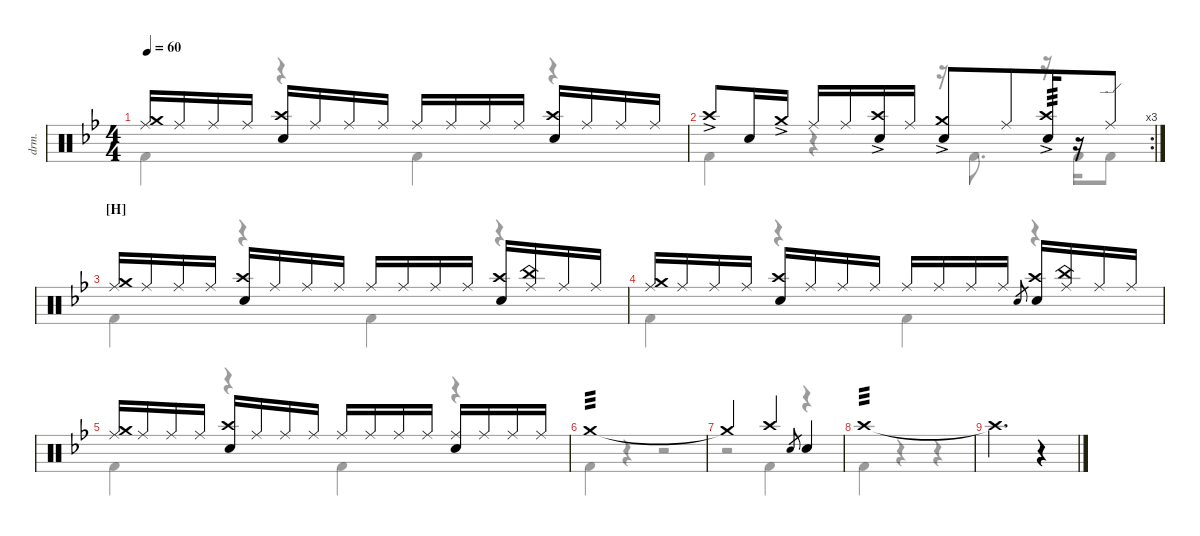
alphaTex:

\defaultSystemsLayout 4
\hideDynamics
\bracketExtendMode nobrackets
\otherSystemsTrackNameOrientation horizontal
\track ("Drumkit" "drm.") {instrument percussion}
\staff {score}
\articulation defaults
\voice
\ts (4 4)
\tempo 60
\clef neutral
\ks bb
("Crash medium (hit)"{acc forcenatural} "Ride (middle)"{acc forcenatural}).16{dy mf beam Up} "Ride (middle)"{acc forcenatural}.16{dy mp beam Up} "Ride (middle)"{acc forcenatural}.16{dy mf beam Up} "Ride (middle)"{acc forcenatural}.16{dy mp beam Up} ("Snare (hit) 2"{acc forcenatural} "Crash high (hit)"{acc forcenatural}).16{dy mf beam Up} "Ride (middle)"{acc forcenatural}.16{dy mp beam Up} "Ride (middle)"{acc forcenatural}.16{beam Up} "Ride (middle)"{acc forcenatural}.16{dy mf beam Up} "Ride (middle)"{acc forcenatural}.16{beam Up} "Ride (middle)"{acc forcenatural}.16{dy mp beam Up} "Ride (middle)"{acc forcenatural}.16{dy mf beam Up} "Ride (middle)"{acc forcenatural}.16{dy mp beam Up} ("Snare (hit) 2"{acc forcenatural} "Crash high (hit)"{acc forcenatural}).16{dy mf beam Up} "Ride (middle)"{acc forcenatural}.16{dy mp beam Up} "Ride (middle)"{acc forcenatural}.16{beam Up} "Ride (middle)"{acc forcenatural}.16{dy mf beam Up} |
\rc 3 "Crash high (hit)"{ac acc forcenatural}.8{dy mp beam Up} "Snare (hit) 2"{acc forcenatural}.16{beam Up} "Crash medium (hit)"{ac acc forcenatural}.16{beam Up} "Ride (middle)"{acc forcenatural}.16{beam Up} "Ride (middle)"{acc forcenatural}.16{beam Up}
("Snare (hit) 2"{acc forcenatural} "Crash high (hit)"{ac acc forcenatural}).16{beam Up} "Ride (middle)"{acc forcenatural}.16{beam Up} ("Crash medium (hit)"{ac acc forcenatural} "Snare (hit) 2"{acc forcenatural}).8{beam Up} "Ride (middle)"{acc forcenatural}.8{beam Up beam merge} ("Crash high (hit)"{ac acc forcenatural} "Snare (hit) 2"{acc forcenatural}).16{tp 3 beam Up} r.16{beam Up} "Ride (edge)"{acc forcenatural}.8{beam Up} |
\section ("H" "")
("Crash medium (hit)"{acc forcenatural} "Ride (middle)"{acc forcenatural}).16{dy mf beam Up} "Ride (middle)"{acc forcenatural}.16{dy mp beam Up} "Ride (middle)"{acc forcenatural}.16{dy mf beam Up} "Ride (middle)"{acc forcenatural}.16{dy mp beam Up} ("Snare (hit) 2"{acc forcenatural} "Crash high (hit)"{acc forcenatural}).16{dy mf beam Up} "Ride (middle)"{acc forcenatural}.16{dy mp beam Up} "Ride (middle)"{acc forcenatural}.16{beam Up} "Ride (middle)"{acc forcenatural}.16{dy mf beam Up} "Ride (middle)"{acc forcenatural}.16{beam Up} "Ride (middle)"{acc forcenatural}.16{dy mp beam Up} "Ride (middle)"{acc forcenatural}.16{dy mf beam Up} "Ride (middle)"{acc forcenatural}.16{dy mp beam Up} ("Snare (hit) 2"{acc forcenatural} "Crash high (hit)"{acc forcenatural}).16{dy mf beam Up} ("Ride (middle)"{acc forcenatural} "China (hit)"{acc forcenatural}).16{dy mp beam Up} "Ride (middle)"{acc forcenatural}.16{beam Up} "Ride (middle)"{acc forcenatural}.16{dy mf beam Up} |
("Crash medium (hit)"{acc forcenatural} "Ride (middle)"{acc forcenatural}).16{beam Up} "Ride (middle)"{acc forcenatural}.16{dy mp beam Up} "Ride (middle)"{acc forcenatural}.16{dy mf beam Up} "Ride (middle)"{acc forcenatural}.16{dy mp beam Up} ("Snare (hit) 2"{acc forcenatural} "Crash high (hit)"{acc forcenatural}).16{dy mf beam Up} "Ride (middle)"{acc forcenatural}.16{dy mp beam Up} "Ride (middle)"{acc forcenatural}.16{beam Up} "Ride (middle)"{acc forcenatural}.16{dy mf beam Up} "Ride (middle)"{acc forcenatural}.16{beam Up} "Ride (middle)"{acc forcenatural}.16{dy mp beam Up} "Ride (middle)"{acc forcenatural}.16{dy mf beam Up} "Ride (middle)"{acc forcenatural}.16{dy mp beam Up} "Snare (hit) 2"{acc forcenatural}.8{gr dy mf beam Up} ("Snare (hit) 2"{acc forcenatural} "Crash high (hit)"{acc forcenatural}).16{beam Up} ("Ride (middle)"{acc forcenatural} "China (hit)"{acc forcenatural}).16{dy mp beam Up} "Ride (middle)"{acc forcenatural}.16{beam Up} "Ride (middle)"{acc forcenatural}.16{dy mf beam Up} |
("Crash medium (hit)"{acc forcenatural} "Ride (middle)"{acc forcenatural}).16{beam Up} "Ride (middle)"{acc forcenatural}.16{dy mp beam Up} "Ride (middle)"{acc forcenatural}.16{dy mf beam Up} "Ride (middle)"{acc forcenatural}.16{dy mp beam Up} ("Snare (hit) 2"{acc forcenatural} "Crash high (hit)"{acc forcenatural}).16{dy mf beam Up} "Ride (middle)"{acc forcenatural}.16{dy mp beam Up} "Ride (middle)"{acc forcenatural}.16{beam Up} "Ride (middle)"{acc forcenatural}.16{dy mf beam Up} "Ride (middle)"{acc forcenatural}.16{beam Up} "Ride (middle)"{acc forcenatural}.16{dy mp beam Up} "Ride (middle)"{acc forcenatural}.16{dy mf beam Up} "Ride (middle)"{acc forcenatural}.16{dy mp beam Up} ("Snare (hit) 2"{acc forcenatural} "Ride (middle)"{acc forcenatural}).16{dy mf beam Up} "Ride (middle)"{acc forcenatural}.16{dy mp beam Up} "Ride (middle)"{acc forcenatural}.16{beam Up} "Ride (middle)"{acc forcenatural}.16{dy mf beam Up} |
"Crash medium (hit)"{acc forcenatural}.1{tp 3 beam Up} |
"Crash medium (hit)"{t acc forcenatural}.2{beam Up} "Crash high (hit)"{acc forcenatural}.4{beam Up} "Snare (hit) 2"{acc forcenatural}.8{gr beam Up} "Snare (hit) 2"{acc forcenatural}.4{beam Up} |
"Crash high (hit)"{acc forcenatural}.1{tp 3 beam Up} |
"Crash high (hit)"{t acc forcenatural}.2{d beam Down} r.4{beam Down}
\voice
\clef neutral
\ottava regular
\simile none
\ks bb "Kick (hit) 2"{acc forcenatural}.4{dy mf beam Down}
r.4{beam Down} "Kick (hit) 2"{acc forcenatural}.4{beam Down} r.4{beam Down} |
"Kick (hit) 2"{acc forcenatural}.4{beam Down} r.4{beam Down} r.16{beam Down} "Kick (hit) 2"{acc forcenatural}.8{d beam Down} r.16{beam Down} "Kick (hit) 2"{acc forcenatural}.16{beam Down} "Kick (hit) 2"{acc forcenatural}.8{beam Down} |
"Kick (hit) 2"{acc forcenatural}.4{beam Down} r.4{beam Down} "Kick (hit) 2"{acc forcenatural}.4{beam Down} r.4{beam Down} |
"Kick (hit) 2"{acc forcenatural}.4{beam Down} r.4{beam Down} "Kick (hit) 2"{acc forcenatural}.4{beam Down} r.4{beam Down} |
"Kick (hit) 2"{acc forcenatural}.4{beam Down} r.4{beam Down} "Kick (hit) 2"{acc forcenatural}.4{beam Down} r.4{beam Down} |
"Kick (hit) 2"{acc forcenatural}.4{beam Down} r.4{beam Down} r.2{beam Down} |
r.2{beam Down} "Kick (hit) 2"{acc forcenatural}.4{beam Down} r.4{beam Down} |
"Kick (hit) 2"{acc forcenatural}.4{beam Down} r.4{beam Down} r.4{beam Down} |
